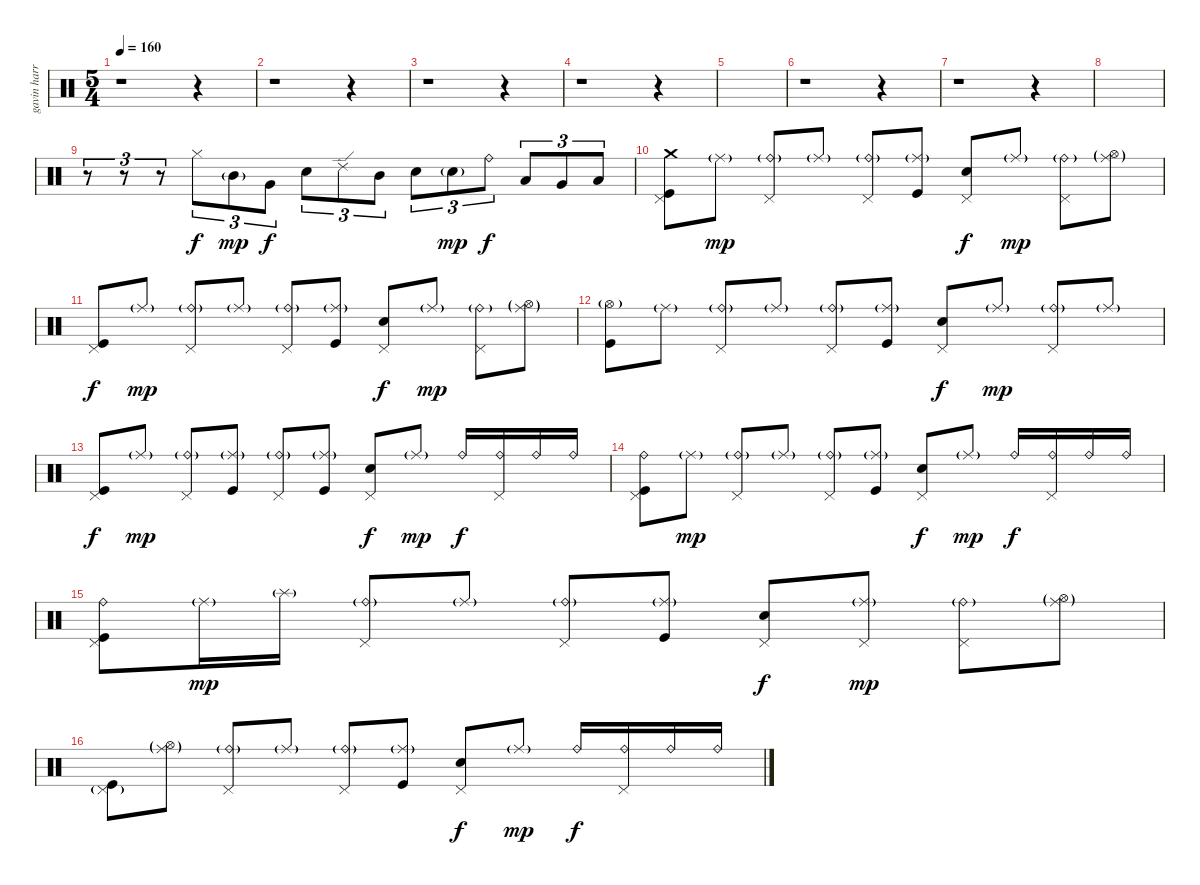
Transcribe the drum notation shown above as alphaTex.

\track ("gavin harrison ( drum ) " "gavin harr") {instrument percussion}
\staff {score}
\articulation defaults
\ts (5 4)
\tempo 160
\clef neutral
\ks c
r.1{dy f} r.4 |
r.1 r.4 |
r.1 r.4 |
r.1 r.4 |
|
r.1 r.4 |
r.1 r.4 |
|
r.8{tu (3 2)} r.8{tu (3 2)} r.8{tu (3 2)} "Hi-Hat (closed)".8{tu (3 2)} "Mid Tom (hit)"{g}.8{tu (3 2) dy mp} "Very Low Tom (hit)".8{tu (3 2) dy f} "Snare (hit) 2".8{tu (3 2)} "Ride (edge) 2".8{tu (3 2)} "Mid Tom (hit)".8{tu (3 2)} "Snare (hit) 2".8{tu (3 2)} "Snare (hit) 2"{g}.8{tu (3 2) dy mp} "Ride (bell)".8{tu (3 2) dy f} "Low Tom (hit)".8{tu (3 2)} "Very Low Tom (hit)".8{tu (3 2)} "Low Floor Tom (hit)".8{tu (3 2)} |
("Crash medium (hit)" "Pedal Hi-Hat (hit)" "Kick (hit)").8 "Ride (middle)"{g}.8{dy mp} ("Ride (bell)"{g} "Pedal Hi-Hat (hit)").8 "Ride (middle)"{g}.8 ("Ride (bell)"{g} "Pedal Hi-Hat (hit)").8 ("Ride (middle)"{g} "Kick (hit)").8 ("Pedal Hi-Hat (hit)" "Snare (hit) 2").8{dy f} "Ride (middle)"{g}.8{dy mp} ("Ride (bell)"{g} "Pedal Hi-Hat (hit)").8 ("Ride (middle)"{g} "Hi-Hat (open)"{g}).8 |
("Pedal Hi-Hat (hit)" "Kick (hit)").8{dy f} "Ride (middle)"{g}.8{dy mp} ("Ride (bell)"{g} "Pedal Hi-Hat (hit)").8 "Ride (middle)"{g}.8 ("Ride (bell)"{g} "Pedal Hi-Hat (hit)").8 ("Ride (middle)"{g} "Kick (hit)").8 ("Pedal Hi-Hat (hit)" "Snare (hit) 2").8{dy f} "Ride (middle)"{g}.8{dy mp} ("Ride (bell)"{g} "Pedal Hi-Hat (hit)").8 ("Ride (middle)"{g} "Hi-Hat (open)"{g}).8 |
("Hi-Hat (open)"{g} "Kick (hit)").8 "Ride (middle)"{g}.8 ("Ride (bell)"{g} "Pedal Hi-Hat (hit)").8 "Ride (middle)"{g}.8 ("Ride (bell)"{g} "Pedal Hi-Hat (hit)").8 ("Ride (middle)"{g} "Kick (hit)").8 ("Pedal Hi-Hat (hit)" "Snare (hit) 2").8{dy f} "Ride (middle)"{g}.8{dy mp} ("Ride (bell)"{g} "Pedal Hi-Hat (hit)").8 "Ride (middle)"{g}.8 |
("Pedal Hi-Hat (hit)" "Kick (hit)").8{dy f} "Ride (middle)"{g}.8{dy mp} ("Ride (bell)"{g} "Pedal Hi-Hat (hit)").8 ("Ride (middle)"{g} "Kick (hit)").8 ("Ride (bell)"{g} "Pedal Hi-Hat (hit)").8 ("Ride (middle)"{g} "Kick (hit)").8 ("Pedal Hi-Hat (hit)" "Snare (hit) 2").8{dy f} "Ride (middle)"{g}.8{dy mp} "Ride (bell)".16{dy f} ("Ride (bell)" "Pedal Hi-Hat (hit)").16 "Ride (bell)".16 "Ride (bell)".16 |
("Ride (bell)" "Pedal Hi-Hat (hit)" "Kick (hit)").8 "Ride (middle)"{g}.8{dy mp} ("Ride (bell)"{g} "Pedal Hi-Hat (hit)").8 "Ride (middle)"{g}.8 ("Ride (bell)"{g} "Pedal Hi-Hat (hit)").8 ("Ride (middle)"{g} "Kick (hit)").8 ("Pedal Hi-Hat (hit)" "Snare (hit) 2").8{dy f} "Ride (middle)"{g}.8{dy mp} "Ride (bell)".16{dy f} ("Ride (bell)" "Pedal Hi-Hat (hit)").16 "Ride (bell)".16 "Ride (bell)".16 |
("Ride (bell)" "Pedal Hi-Hat (hit)" "Kick (hit)").8 "Ride (middle)"{g}.16{dy mp} "Splash (hit)"{g}.16 ("Ride (bell)"{g} "Pedal Hi-Hat (hit)").8 "Ride (middle)"{g}.8 ("Ride (bell)"{g} "Pedal Hi-Hat (hit)").8 ("Ride (middle)"{g} "Kick (hit)").8 ("Pedal Hi-Hat (hit)" "Snare (hit) 2").8{dy f} ("Ride (middle)"{g} "Pedal Hi-Hat (hit)").8{dy mp} ("Ride (bell)"{g} "Pedal Hi-Hat (hit)").8 ("Ride (middle)"{g} "Hi-Hat (open)"{g}).8 |
("Pedal Hi-Hat (hit)"{g} "Kick (hit)").8 ("Ride (middle)"{g} "Hi-Hat (open)"{g}).8 ("Ride (bell)"{g} "Pedal Hi-Hat (hit)").8 "Ride (middle)"{g}.8 ("Ride (bell)"{g} "Pedal Hi-Hat (hit)").8 ("Ride (middle)"{g} "Kick (hit)").8 ("Pedal Hi-Hat (hit)" "Snare (hit) 2").8{dy f} "Ride (middle)"{g}.8{dy mp} "Ride (bell)".16{dy f} ("Ride (bell)" "Pedal Hi-Hat (hit)").16 "Ride (bell)".16 "Ride (bell)".16
